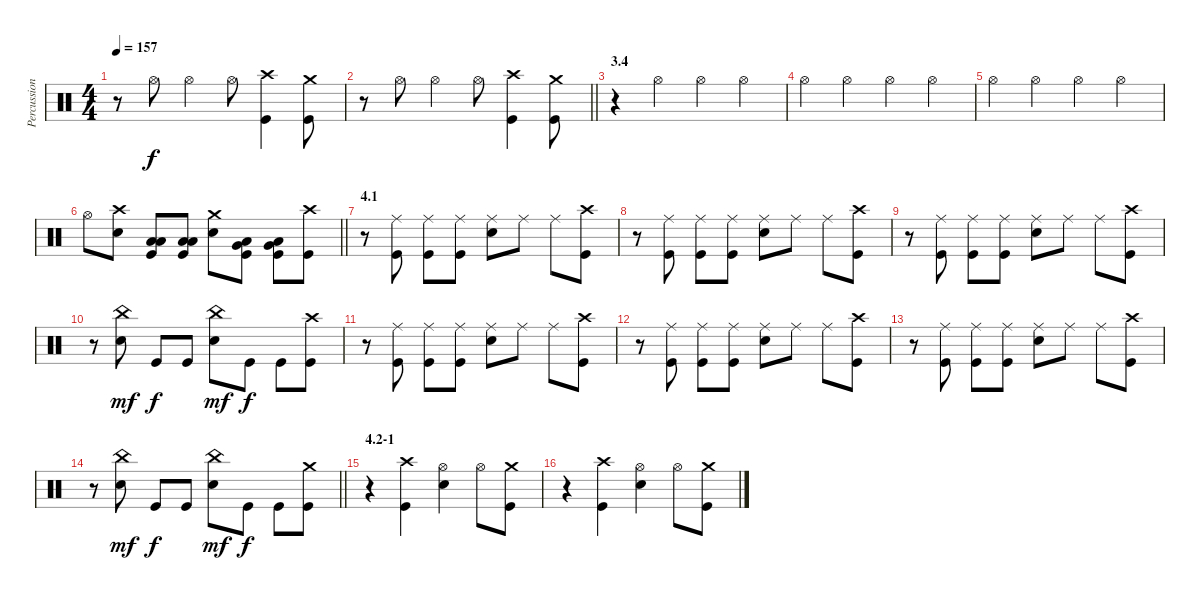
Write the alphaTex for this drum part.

\track ("Percussion" "Percussion") {instrument percussion}
\staff {score}
\articulation defaults
\ts (4 4)
\tempo 157
\clef neutral
\ks c
r.8{dy f} "Hi-Hat (open)".8 "Hi-Hat (open)".4 "Hi-Hat (open)".8 ("Crash high (hit)" "Kick (hit)").4 ("Crash medium (hit)" "Kick (hit)").8 |
\barLineRight lightlight
r.8 "Hi-Hat (open)".8 "Hi-Hat (open)".4 "Hi-Hat (open)".8 ("Crash high (hit)" "Kick (hit)").4 ("Crash medium (hit)" "Kick (hit)").8 |
\section ("" "3.4")
r.4 "Hi-Hat (open)".4 "Hi-Hat (open)".4 "Hi-Hat (open)".4 |
"Hi-Hat (open)".4 "Hi-Hat (open)".4 "Hi-Hat (open)".4 "Hi-Hat (open)".4 |
"Hi-Hat (open)".4 "Hi-Hat (open)".4 "Hi-Hat (open)".4 "Hi-Hat (open)".4 |
\barLineRight lightlight "Hi-Hat (open)".8
("Crash high (hit)" "Snare (hit) 2").8 ("Low Tom (hit)" "Low Floor Tom (hit)" "Kick (hit)").8 ("Low Tom (hit)" "Low Floor Tom (hit)" "Kick (hit)").8 ("Crash medium (hit)" "Snare (hit) 2").8 ("Very Low Tom (hit)" "Low Floor Tom (hit)" "Kick (hit)").8 ("Very Low Tom (hit)" "Low Floor Tom (hit)" "Kick (hit)").8 ("Crash high (hit)" "Kick (hit)").8 |
\section ("" "4.1")
r.8 ("Ride (middle)" "Kick (hit)").8 ("Ride (middle)" "Kick (hit)").8 ("Ride (middle)" "Kick (hit)").8 ("Ride (middle)" "Snare (hit) 2").8 "Ride (middle)".8 "Ride (middle)".8 ("Crash high (hit)" "Kick (hit)").8 |
r.8 ("Ride (middle)" "Kick (hit)").8 ("Ride (middle)" "Kick (hit)").8 ("Ride (middle)" "Kick (hit)").8 ("Ride (middle)" "Snare (hit) 2").8 "Ride (middle)".8 "Ride (middle)".8 ("Crash high (hit)" "Kick (hit)").8 |
r.8 ("Ride (middle)" "Kick (hit)").8 ("Ride (middle)" "Kick (hit)").8 ("Ride (middle)" "Kick (hit)").8 ("Ride (middle)" "Snare (hit) 2").8 "Ride (middle)".8 "Ride (middle)".8 ("Crash high (hit)" "Kick (hit)").8 |
r.8 ("China (hit)" "Snare (hit) 2").8{dy mf} "Kick (hit)".8{dy f} "Kick (hit)".8 ("China (hit)" "Snare (hit) 2").8{dy mf} "Kick (hit)".8{dy f} "Kick (hit)".8 ("Crash high (hit)" "Kick (hit)").8 |
r.8 ("Ride (middle)" "Kick (hit)").8 ("Ride (middle)" "Kick (hit)").8 ("Ride (middle)" "Kick (hit)").8 ("Ride (middle)" "Snare (hit) 2").8 "Ride (middle)".8 "Ride (middle)".8 ("Crash high (hit)" "Kick (hit)").8 |
r.8 ("Ride (middle)" "Kick (hit)").8 ("Ride (middle)" "Kick (hit)").8 ("Ride (middle)" "Kick (hit)").8 ("Ride (middle)" "Snare (hit) 2").8 "Ride (middle)".8 "Ride (middle)".8 ("Crash high (hit)" "Kick (hit)").8 |
r.8 ("Ride (middle)" "Kick (hit)").8 ("Ride (middle)" "Kick (hit)").8 ("Ride (middle)" "Kick (hit)").8 ("Ride (middle)" "Snare (hit) 2").8 "Ride (middle)".8 "Ride (middle)".8 ("Crash high (hit)" "Kick (hit)").8 |
\barLineRight lightlight
r.8 ("China (hit)" "Snare (hit) 2").8{dy mf} "Kick (hit)".8{dy f} "Kick (hit)".8 ("China (hit)" "Snare (hit) 2").8{dy mf} "Kick (hit)".8{dy f} "Kick (hit)".8 ("Crash medium (hit)" "Kick (hit)").8 |
\section ("" "4.2-1")
r.4 ("Crash high (hit)" "Kick (hit)").4 ("Hi-Hat (open)" "Snare (hit) 2").4 "Hi-Hat (open)".8 ("Crash medium (hit)" "Kick (hit)").8 |
r.4 ("Crash high (hit)" "Kick (hit)").4 ("Hi-Hat (open)" "Snare (hit) 2").4 "Hi-Hat (open)".8 ("Crash medium (hit)" "Kick (hit)").8
